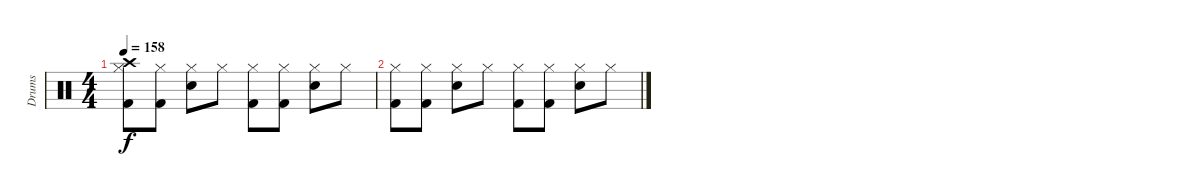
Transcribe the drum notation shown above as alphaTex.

\track ("Drums" "Drums") {instrument percussion}
\staff {score}
\articulation defaults
\ts (4 4)
\tempo 158
\clef neutral
\ks c
("Hi-Hat (closed)" "Crash high (hit)" "Kick (hit) 2").8{dy f} ("Hi-Hat (closed)" "Kick (hit) 2").8 ("Hi-Hat (closed)" "Snare (hit) 2").8 "Hi-Hat (closed)".8 ("Hi-Hat (closed)" "Kick (hit) 2").8 ("Hi-Hat (closed)" "Kick (hit) 2").8 ("Hi-Hat (closed)" "Snare (hit) 2").8 "Hi-Hat (closed)".8 |
("Hi-Hat (closed)" "Kick (hit) 2").8 ("Hi-Hat (closed)" "Kick (hit) 2").8 ("Hi-Hat (closed)" "Snare (hit) 2").8 "Hi-Hat (closed)".8 ("Hi-Hat (closed)" "Kick (hit) 2").8 ("Hi-Hat (closed)" "Kick (hit) 2").8 ("Hi-Hat (closed)" "Snare (hit) 2").8 "Hi-Hat (closed)".8
